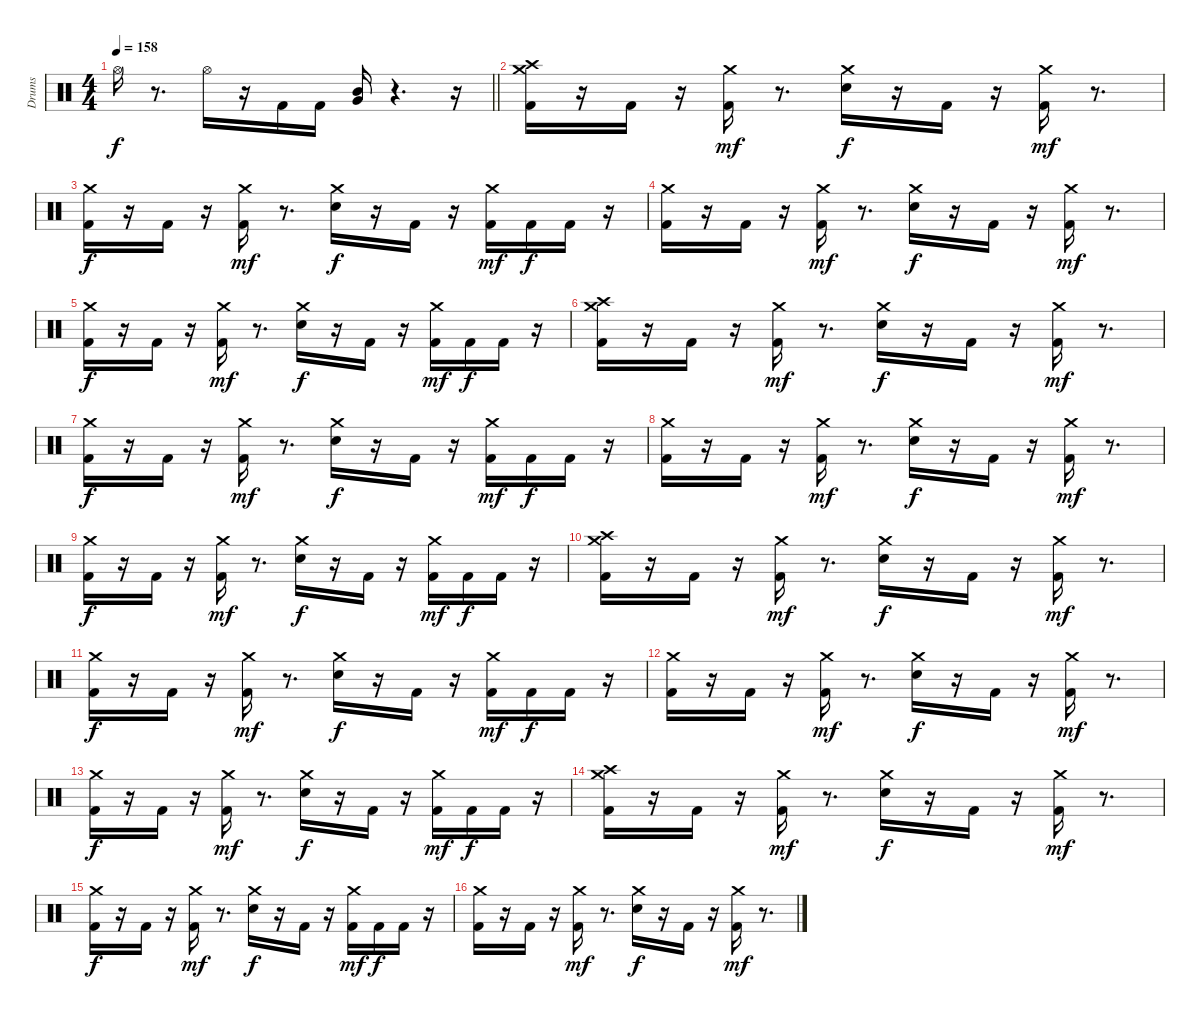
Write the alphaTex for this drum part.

\track ("Drums" "Drums") {instrument percussion}
\staff {score}
\articulation defaults
\ts (4 4)
\tempo 158
\clef neutral
\barLineRight lightlight
\ks c "Hi-Hat (open)".16{dy f}
r.8{d} "Hi-Hat (open)".16 r.16 "Kick (hit) 2".16 "Kick (hit) 2".16 ("Very Low Tom (hit)" "Mid Tom (hit)").16 r.4{d} r.16 |
\section ("" " ")
("Kick (hit) 2" "Crash high (hit)" "Crash medium (hit)").16 r.16 "Kick (hit) 2".16 r.16 ("Kick (hit) 2" "Crash medium (hit)").16{dy mf} r.8{d} ("Snare (hit) 2" "Crash medium (hit)").16{dy f} r.16 "Kick (hit) 2".16 r.16 ("Kick (hit) 2" "Crash medium (hit)").16{dy mf} r.8{d} |
("Kick (hit) 2" "Crash medium (hit)").16{dy f} r.16 "Kick (hit) 2".16 r.16 ("Kick (hit) 2" "Crash medium (hit)").16{dy mf} r.8{d} ("Snare (hit) 2" "Crash medium (hit)").16{dy f} r.16 "Kick (hit) 2".16 r.16 ("Kick (hit) 2" "Crash medium (hit)").16{dy mf} "Kick (hit) 2".16{dy f} "Kick (hit) 2".16 r.16 |
("Kick (hit) 2" "Crash medium (hit)").16 r.16 "Kick (hit) 2".16 r.16 ("Kick (hit) 2" "Crash medium (hit)").16{dy mf} r.8{d} ("Snare (hit) 2" "Crash medium (hit)").16{dy f} r.16 "Kick (hit) 2".16 r.16 ("Kick (hit) 2" "Crash medium (hit)").16{dy mf} r.8{d} |
("Kick (hit) 2" "Crash medium (hit)").16{dy f} r.16 "Kick (hit) 2".16 r.16 ("Kick (hit) 2" "Crash medium (hit)").16{dy mf} r.8{d} ("Snare (hit) 2" "Crash medium (hit)").16{dy f} r.16 "Kick (hit) 2".16 r.16 ("Kick (hit) 2" "Crash medium (hit)").16{dy mf} "Kick (hit) 2".16{dy f} "Kick (hit) 2".16 r.16 |
("Kick (hit) 2" "Crash high (hit)" "Crash medium (hit)").16 r.16 "Kick (hit) 2".16 r.16 ("Kick (hit) 2" "Crash medium (hit)").16{dy mf} r.8{d} ("Snare (hit) 2" "Crash medium (hit)").16{dy f} r.16 "Kick (hit) 2".16 r.16 ("Kick (hit) 2" "Crash medium (hit)").16{dy mf} r.8{d} |
("Kick (hit) 2" "Crash medium (hit)").16{dy f} r.16 "Kick (hit) 2".16 r.16 ("Kick (hit) 2" "Crash medium (hit)").16{dy mf} r.8{d} ("Snare (hit) 2" "Crash medium (hit)").16{dy f} r.16 "Kick (hit) 2".16 r.16 ("Kick (hit) 2" "Crash medium (hit)").16{dy mf} "Kick (hit) 2".16{dy f} "Kick (hit) 2".16 r.16 |
("Kick (hit) 2" "Crash medium (hit)").16 r.16 "Kick (hit) 2".16 r.16 ("Kick (hit) 2" "Crash medium (hit)").16{dy mf} r.8{d} ("Snare (hit) 2" "Crash medium (hit)").16{dy f} r.16 "Kick (hit) 2".16 r.16 ("Kick (hit) 2" "Crash medium (hit)").16{dy mf} r.8{d} |
("Kick (hit) 2" "Crash medium (hit)").16{dy f} r.16 "Kick (hit) 2".16 r.16 ("Kick (hit) 2" "Crash medium (hit)").16{dy mf} r.8{d} ("Snare (hit) 2" "Crash medium (hit)").16{dy f} r.16 "Kick (hit) 2".16 r.16 ("Kick (hit) 2" "Crash medium (hit)").16{dy mf} "Kick (hit) 2".16{dy f} "Kick (hit) 2".16 r.16 |
("Kick (hit) 2" "Crash high (hit)" "Crash medium (hit)").16 r.16 "Kick (hit) 2".16 r.16 ("Kick (hit) 2" "Crash medium (hit)").16{dy mf} r.8{d} ("Snare (hit) 2" "Crash medium (hit)").16{dy f} r.16 "Kick (hit) 2".16 r.16 ("Kick (hit) 2" "Crash medium (hit)").16{dy mf} r.8{d} |
("Kick (hit) 2" "Crash medium (hit)").16{dy f} r.16 "Kick (hit) 2".16 r.16 ("Kick (hit) 2" "Crash medium (hit)").16{dy mf} r.8{d} ("Snare (hit) 2" "Crash medium (hit)").16{dy f} r.16 "Kick (hit) 2".16 r.16 ("Kick (hit) 2" "Crash medium (hit)").16{dy mf} "Kick (hit) 2".16{dy f} "Kick (hit) 2".16 r.16 |
("Kick (hit) 2" "Crash medium (hit)").16 r.16 "Kick (hit) 2".16 r.16 ("Kick (hit) 2" "Crash medium (hit)").16{dy mf} r.8{d} ("Snare (hit) 2" "Crash medium (hit)").16{dy f} r.16 "Kick (hit) 2".16 r.16 ("Kick (hit) 2" "Crash medium (hit)").16{dy mf} r.8{d} |
("Kick (hit) 2" "Crash medium (hit)").16{dy f} r.16 "Kick (hit) 2".16 r.16 ("Kick (hit) 2" "Crash medium (hit)").16{dy mf} r.8{d} ("Snare (hit) 2" "Crash medium (hit)").16{dy f} r.16 "Kick (hit) 2".16 r.16 ("Kick (hit) 2" "Crash medium (hit)").16{dy mf} "Kick (hit) 2".16{dy f} "Kick (hit) 2".16 r.16 |
("Kick (hit) 2" "Crash high (hit)" "Crash medium (hit)").16 r.16 "Kick (hit) 2".16 r.16 ("Kick (hit) 2" "Crash medium (hit)").16{dy mf} r.8{d} ("Snare (hit) 2" "Crash medium (hit)").16{dy f} r.16 "Kick (hit) 2".16 r.16 ("Kick (hit) 2" "Crash medium (hit)").16{dy mf} r.8{d} |
("Kick (hit) 2" "Crash medium (hit)").16{dy f} r.16 "Kick (hit) 2".16 r.16 ("Kick (hit) 2" "Crash medium (hit)").16{dy mf} r.8{d} ("Snare (hit) 2" "Crash medium (hit)").16{dy f} r.16 "Kick (hit) 2".16 r.16 ("Kick (hit) 2" "Crash medium (hit)").16{dy mf} "Kick (hit) 2".16{dy f} "Kick (hit) 2".16 r.16 |
("Kick (hit) 2" "Crash medium (hit)").16 r.16 "Kick (hit) 2".16 r.16 ("Kick (hit) 2" "Crash medium (hit)").16{dy mf} r.8{d} ("Snare (hit) 2" "Crash medium (hit)").16{dy f} r.16 "Kick (hit) 2".16 r.16 ("Kick (hit) 2" "Crash medium (hit)").16{dy mf} r.8{d}
